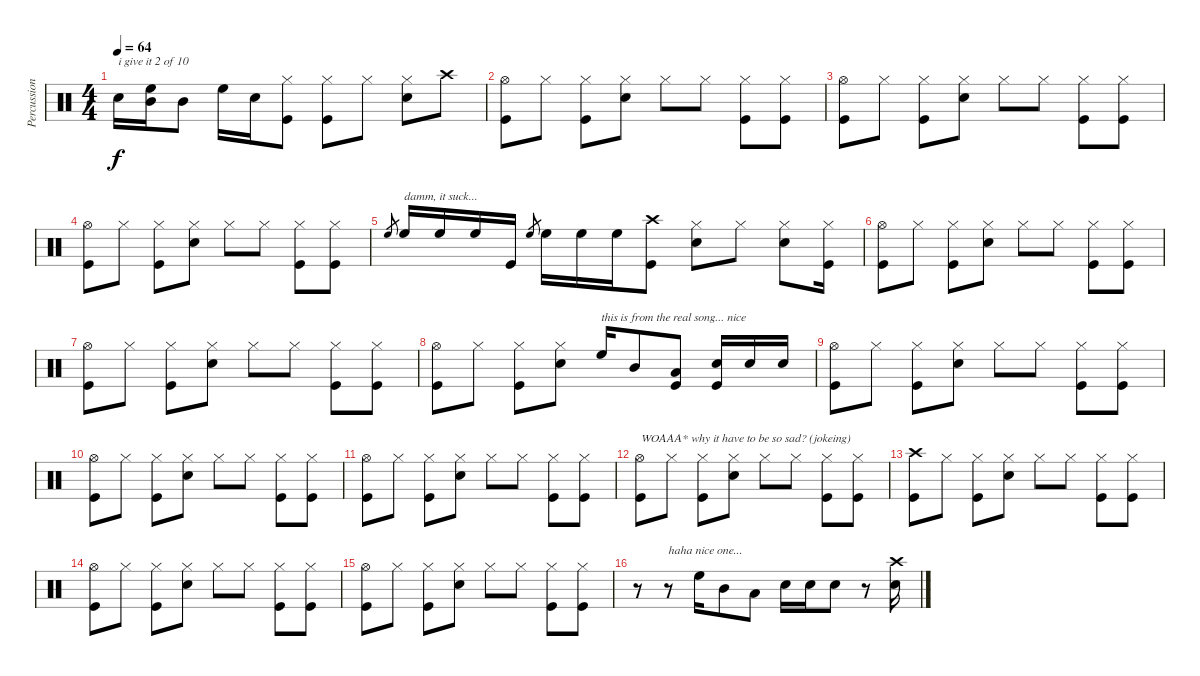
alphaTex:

\track ("Percussion" "Percussion") {instrument percussion}
\staff {score}
\articulation defaults
\ts (4 4)
\tempo 64
\clef neutral
\ks c "Snare (hit) 2".16{txt "i give it 2 of 10" dy f}
("High Floor Tom (hit)" "Mid Tom (hit)").16 "Mid Tom (hit)".8 "High Floor Tom (hit)".16 "Snare (hit) 2".16 ("Hi-Hat (closed)" "Kick (hit)").8 ("Hi-Hat (closed)" "Kick (hit)").8 "Hi-Hat (closed)".8 ("Hi-Hat (closed)" "Snare (hit) 2").8 "Crash high (hit)".8 |
("Hi-Hat (open)" "Kick (hit)").8 "Hi-Hat (closed)".8 ("Hi-Hat (closed)" "Kick (hit)").8 ("Snare (hit) 2" "Hi-Hat (closed)").8 "Hi-Hat (closed)".8 "Hi-Hat (closed)".8 ("Hi-Hat (closed)" "Kick (hit)").8 ("Hi-Hat (closed)" "Kick (hit)").8 |
("Hi-Hat (open)" "Kick (hit)").8 "Hi-Hat (closed)".8 ("Hi-Hat (closed)" "Kick (hit)").8 ("Snare (hit) 2" "Hi-Hat (closed)").8 "Hi-Hat (closed)".8 "Hi-Hat (closed)".8 ("Hi-Hat (closed)" "Kick (hit)").8 ("Hi-Hat (closed)" "Kick (hit)").8 |
("Hi-Hat (open)" "Kick (hit)").8 "Hi-Hat (closed)".8 ("Hi-Hat (closed)" "Kick (hit)").8 ("Snare (hit) 2" "Hi-Hat (closed)").8 "Hi-Hat (closed)".8 "Hi-Hat (closed)".8 ("Hi-Hat (closed)" "Kick (hit)").8 ("Hi-Hat (closed)" "Kick (hit)").8 |
"High Floor Tom (hit)".8{gr} "High Floor Tom (hit)".16{txt "damm, it suck..."} "High Floor Tom (hit)".16 "High Floor Tom (hit)".16 "Kick (hit)".16 "High Floor Tom (hit)".8{gr} "High Floor Tom (hit)".16 "High Floor Tom (hit)".16 "High Floor Tom (hit)".16 ("Crash high (hit)" "Kick (hit)").8 ("Hi-Hat (closed)" "Snare (hit) 2").8 "Hi-Hat (closed)".8 ("Hi-Hat (closed)" "Snare (hit) 2").8 ("Hi-Hat (closed)" "Kick (hit)").16 |
("Hi-Hat (open)" "Kick (hit)").8 "Hi-Hat (closed)".8 ("Hi-Hat (closed)" "Kick (hit)").8 ("Snare (hit) 2" "Hi-Hat (closed)").8 "Hi-Hat (closed)".8 "Hi-Hat (closed)".8 ("Hi-Hat (closed)" "Kick (hit)").8 ("Hi-Hat (closed)" "Kick (hit)").8 |
("Hi-Hat (open)" "Kick (hit)").8 "Hi-Hat (closed)".8 ("Hi-Hat (closed)" "Kick (hit)").8 ("Snare (hit) 2" "Hi-Hat (closed)").8 "Hi-Hat (closed)".8 "Hi-Hat (closed)".8 ("Hi-Hat (closed)" "Kick (hit)").8 ("Hi-Hat (closed)" "Kick (hit)").8 |
("Hi-Hat (open)" "Kick (hit)").8 "Hi-Hat (closed)".8 ("Hi-Hat (closed)" "Kick (hit)").8 ("Snare (hit) 2" "Hi-Hat (closed)").8 "High Floor Tom (hit)".16{txt "this is from the real song... nice"} "Mid Tom (hit)".8 ("Low Tom (hit)" "Kick (hit)").8 ("Snare (hit) 2" "Kick (hit)").16 "Snare (hit) 2".16 "Snare (hit) 2".16 |
("Hi-Hat (open)" "Kick (hit)").8 "Hi-Hat (closed)".8 ("Hi-Hat (closed)" "Kick (hit)").8 ("Snare (hit) 2" "Hi-Hat (closed)").8 "Hi-Hat (closed)".8 "Hi-Hat (closed)".8 ("Hi-Hat (closed)" "Kick (hit)").8 ("Hi-Hat (closed)" "Kick (hit)").8 |
("Hi-Hat (open)" "Kick (hit)").8 "Hi-Hat (closed)".8 ("Hi-Hat (closed)" "Kick (hit)").8 ("Snare (hit) 2" "Hi-Hat (closed)").8 "Hi-Hat (closed)".8 "Hi-Hat (closed)".8 ("Hi-Hat (closed)" "Kick (hit)").8 ("Hi-Hat (closed)" "Kick (hit)").8 |
("Hi-Hat (open)" "Kick (hit)").8 "Hi-Hat (closed)".8 ("Hi-Hat (closed)" "Kick (hit)").8 ("Snare (hit) 2" "Hi-Hat (closed)").8 "Hi-Hat (closed)".8 "Hi-Hat (closed)".8 ("Hi-Hat (closed)" "Kick (hit)").8 ("Hi-Hat (closed)" "Kick (hit)").8 |
("Hi-Hat (open)" "Kick (hit)").8{txt "WOAAA* why it have to be so sad? (jokeing)"} "Hi-Hat (closed)".8 ("Hi-Hat (closed)" "Kick (hit)").8 ("Snare (hit) 2" "Hi-Hat (closed)").8 "Hi-Hat (closed)".8 "Hi-Hat (closed)".8 ("Hi-Hat (closed)" "Kick (hit)").8 ("Hi-Hat (closed)" "Kick (hit)").8 |
("Crash high (hit)" "Kick (hit)").8 "Hi-Hat (closed)".8 ("Hi-Hat (closed)" "Kick (hit)").8 ("Snare (hit) 2" "Hi-Hat (closed)").8 "Hi-Hat (closed)".8 "Hi-Hat (closed)".8 ("Hi-Hat (closed)" "Kick (hit)").8 ("Hi-Hat (closed)" "Kick (hit)").8 |
("Hi-Hat (open)" "Kick (hit)").8 "Hi-Hat (closed)".8 ("Hi-Hat (closed)" "Kick (hit)").8 ("Snare (hit) 2" "Hi-Hat (closed)").8 "Hi-Hat (closed)".8 "Hi-Hat (closed)".8 ("Hi-Hat (closed)" "Kick (hit)").8 ("Hi-Hat (closed)" "Kick (hit)").8 |
("Hi-Hat (open)" "Kick (hit)").8 "Hi-Hat (closed)".8 ("Hi-Hat (closed)" "Kick (hit)").8 ("Snare (hit) 2" "Hi-Hat (closed)").8 "Hi-Hat (closed)".8 "Hi-Hat (closed)".8 ("Hi-Hat (closed)" "Kick (hit)").8 ("Hi-Hat (closed)" "Kick (hit)").8 |
r.8 r.8{txt "haha nice one..."} "High Floor Tom (hit)".16 "Mid Tom (hit)".8 "Low Tom (hit)".8 "Snare (hit) 2".16 "Snare (hit) 2".16 "Snare (hit) 2".8 r.8 ("Crash high (hit)" "Snare (hit) 2").16
